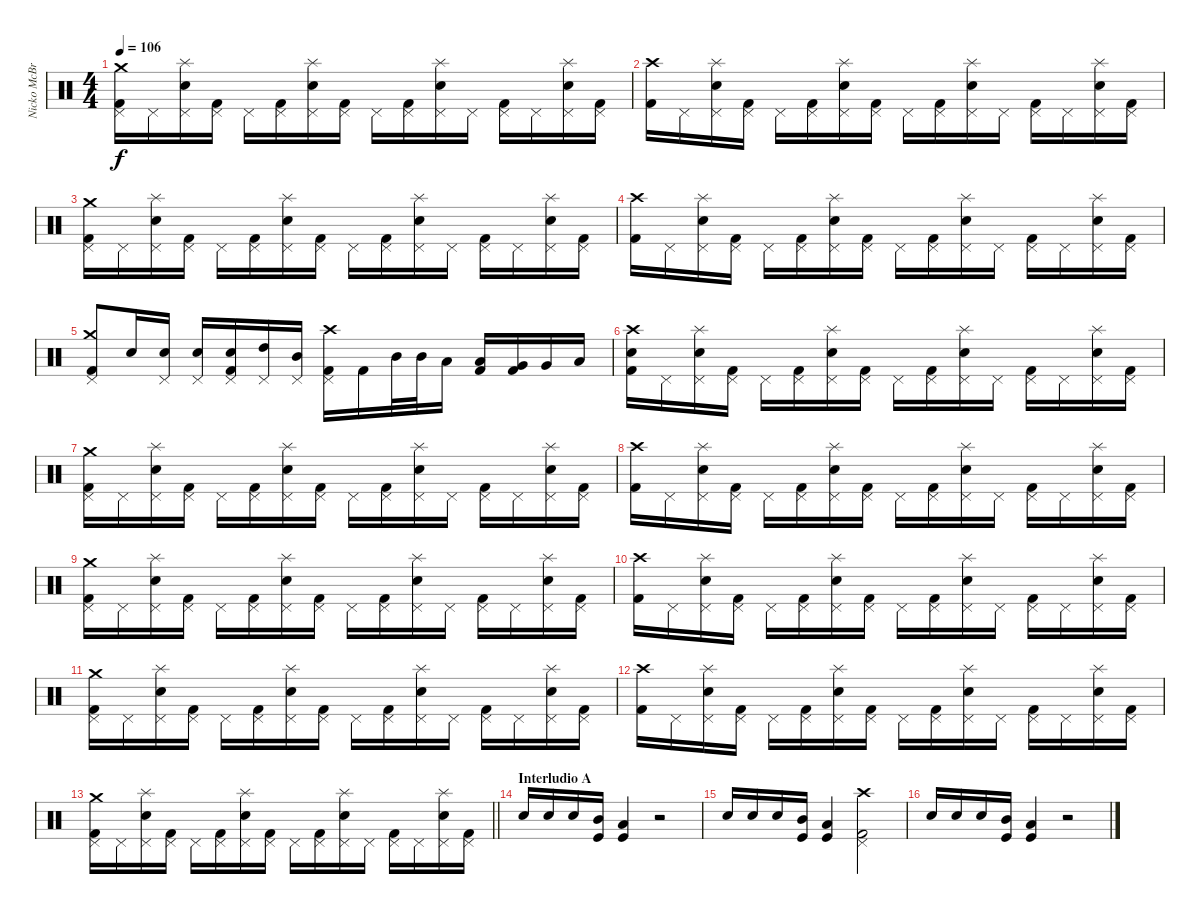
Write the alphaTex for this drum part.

\track ("Nicko McBrain" "Nicko McBr") {instrument percussion}
\staff {score}
\articulation defaults
\ts (4 4)
\tempo 106
\clef neutral
\ks c
("Pedal Hi-Hat (hit)" "Crash medium (hit)" "Kick (hit) 2").16{dy f} "Pedal Hi-Hat (hit)".16 ("Pedal Hi-Hat (hit)" "Snare (hit) 2" "Splash (hit)").16 ("Pedal Hi-Hat (hit)" "Kick (hit) 2").16 "Pedal Hi-Hat (hit)".16 ("Pedal Hi-Hat (hit)" "Kick (hit) 2").16 ("Pedal Hi-Hat (hit)" "Snare (hit) 2" "Splash (hit)").16 ("Pedal Hi-Hat (hit)" "Kick (hit) 2").16 "Pedal Hi-Hat (hit)".16 ("Pedal Hi-Hat (hit)" "Kick (hit) 2").16 ("Pedal Hi-Hat (hit)" "Snare (hit) 2" "Splash (hit)").16 "Pedal Hi-Hat (hit)".16 ("Pedal Hi-Hat (hit)" "Kick (hit) 2").16 "Pedal Hi-Hat (hit)".16 ("Pedal Hi-Hat (hit)" "Snare (hit) 2" "Splash (hit)").16 ("Pedal Hi-Hat (hit)" "Kick (hit) 2").16 |
("Crash high (hit)" "Kick (hit) 2").16 "Pedal Hi-Hat (hit)".16 ("Pedal Hi-Hat (hit)" "Snare (hit) 2" "Splash (hit)").16 ("Pedal Hi-Hat (hit)" "Kick (hit) 2").16 "Pedal Hi-Hat (hit)".16 ("Pedal Hi-Hat (hit)" "Kick (hit) 2").16 ("Pedal Hi-Hat (hit)" "Snare (hit) 2" "Splash (hit)").16 ("Pedal Hi-Hat (hit)" "Kick (hit) 2").16 "Pedal Hi-Hat (hit)".16 ("Pedal Hi-Hat (hit)" "Kick (hit) 2").16 ("Pedal Hi-Hat (hit)" "Snare (hit) 2" "Splash (hit)").16 "Pedal Hi-Hat (hit)".16 ("Pedal Hi-Hat (hit)" "Kick (hit) 2").16 "Pedal Hi-Hat (hit)".16 ("Pedal Hi-Hat (hit)" "Snare (hit) 2" "Splash (hit)").16 ("Pedal Hi-Hat (hit)" "Kick (hit) 2").16 |
("Pedal Hi-Hat (hit)" "Crash medium (hit)" "Kick (hit) 2").16 "Pedal Hi-Hat (hit)".16 ("Pedal Hi-Hat (hit)" "Snare (hit) 2" "Splash (hit)").16 ("Pedal Hi-Hat (hit)" "Kick (hit) 2").16 "Pedal Hi-Hat (hit)".16 ("Pedal Hi-Hat (hit)" "Kick (hit) 2").16 ("Pedal Hi-Hat (hit)" "Snare (hit) 2" "Splash (hit)").16 ("Pedal Hi-Hat (hit)" "Kick (hit) 2").16 "Pedal Hi-Hat (hit)".16 ("Pedal Hi-Hat (hit)" "Kick (hit) 2").16 ("Pedal Hi-Hat (hit)" "Snare (hit) 2" "Splash (hit)").16 "Pedal Hi-Hat (hit)".16 ("Pedal Hi-Hat (hit)" "Kick (hit) 2").16 "Pedal Hi-Hat (hit)".16 ("Pedal Hi-Hat (hit)" "Snare (hit) 2" "Splash (hit)").16 ("Pedal Hi-Hat (hit)" "Kick (hit) 2").16 |
("Crash high (hit)" "Kick (hit) 2").16 "Pedal Hi-Hat (hit)".16 ("Pedal Hi-Hat (hit)" "Snare (hit) 2" "Splash (hit)").16 ("Pedal Hi-Hat (hit)" "Kick (hit) 2").16 "Pedal Hi-Hat (hit)".16 ("Pedal Hi-Hat (hit)" "Kick (hit) 2").16 ("Pedal Hi-Hat (hit)" "Snare (hit) 2" "Splash (hit)").16 ("Pedal Hi-Hat (hit)" "Kick (hit) 2").16 "Pedal Hi-Hat (hit)".16 ("Pedal Hi-Hat (hit)" "Kick (hit) 2").16 ("Pedal Hi-Hat (hit)" "Snare (hit) 2" "Splash (hit)").16 "Pedal Hi-Hat (hit)".16 ("Pedal Hi-Hat (hit)" "Kick (hit) 2").16 "Pedal Hi-Hat (hit)".16 ("Pedal Hi-Hat (hit)" "Snare (hit) 2" "Splash (hit)").16 ("Pedal Hi-Hat (hit)" "Kick (hit) 2").16 |
("Pedal Hi-Hat (hit)" "Crash medium (hit)" "Kick (hit) 2").8 "Snare (hit) 2".16 ("Pedal Hi-Hat (hit)" "Snare (hit) 2").16 ("Pedal Hi-Hat (hit)" "Snare (hit) 2").16 ("Pedal Hi-Hat (hit)" "Snare (hit) 2" "Kick (hit) 2").16 ("Pedal Hi-Hat (hit)" "High Tom (hit)").16 ("Pedal Hi-Hat (hit)" "Mid Tom (hit)").16 ("Pedal Hi-Hat (hit)" "Crash high (hit)" "Kick (hit) 2").16 "Kick (hit) 2".16 "Mid Tom (hit)".32 "Mid Tom (hit)".32 "Low Tom (hit)".16 ("Low Tom (hit)" "Kick (hit) 2").16 ("Very Low Tom (hit)" "Kick (hit) 2").16 "Very Low Tom (hit)".16 "Low Floor Tom (hit)".16 |
("Snare (hit) 2" "Crash high (hit)" "Kick (hit) 2").16 "Pedal Hi-Hat (hit)".16 ("Pedal Hi-Hat (hit)" "Snare (hit) 2" "Splash (hit)").16 ("Pedal Hi-Hat (hit)" "Kick (hit) 2").16 "Pedal Hi-Hat (hit)".16 ("Pedal Hi-Hat (hit)" "Kick (hit) 2").16 ("Pedal Hi-Hat (hit)" "Snare (hit) 2" "Splash (hit)").16 ("Pedal Hi-Hat (hit)" "Kick (hit) 2").16 "Pedal Hi-Hat (hit)".16 ("Pedal Hi-Hat (hit)" "Kick (hit) 2").16 ("Pedal Hi-Hat (hit)" "Snare (hit) 2" "Splash (hit)").16 "Pedal Hi-Hat (hit)".16 ("Pedal Hi-Hat (hit)" "Kick (hit) 2").16 "Pedal Hi-Hat (hit)".16 ("Pedal Hi-Hat (hit)" "Snare (hit) 2" "Splash (hit)").16 ("Pedal Hi-Hat (hit)" "Kick (hit) 2").16 |
("Pedal Hi-Hat (hit)" "Crash medium (hit)" "Kick (hit) 2").16 "Pedal Hi-Hat (hit)".16 ("Pedal Hi-Hat (hit)" "Snare (hit) 2" "Splash (hit)").16 ("Pedal Hi-Hat (hit)" "Kick (hit) 2").16 "Pedal Hi-Hat (hit)".16 ("Pedal Hi-Hat (hit)" "Kick (hit) 2").16 ("Pedal Hi-Hat (hit)" "Snare (hit) 2" "Splash (hit)").16 ("Pedal Hi-Hat (hit)" "Kick (hit) 2").16 "Pedal Hi-Hat (hit)".16 ("Pedal Hi-Hat (hit)" "Kick (hit) 2").16 ("Pedal Hi-Hat (hit)" "Snare (hit) 2" "Splash (hit)").16 "Pedal Hi-Hat (hit)".16 ("Pedal Hi-Hat (hit)" "Kick (hit) 2").16 "Pedal Hi-Hat (hit)".16 ("Pedal Hi-Hat (hit)" "Snare (hit) 2" "Splash (hit)").16 ("Pedal Hi-Hat (hit)" "Kick (hit) 2").16 |
("Crash high (hit)" "Kick (hit) 2").16 "Pedal Hi-Hat (hit)".16 ("Pedal Hi-Hat (hit)" "Snare (hit) 2" "Splash (hit)").16 ("Pedal Hi-Hat (hit)" "Kick (hit) 2").16 "Pedal Hi-Hat (hit)".16 ("Pedal Hi-Hat (hit)" "Kick (hit) 2").16 ("Pedal Hi-Hat (hit)" "Snare (hit) 2" "Splash (hit)").16 ("Pedal Hi-Hat (hit)" "Kick (hit) 2").16 "Pedal Hi-Hat (hit)".16 ("Pedal Hi-Hat (hit)" "Kick (hit) 2").16 ("Pedal Hi-Hat (hit)" "Snare (hit) 2" "Splash (hit)").16 "Pedal Hi-Hat (hit)".16 ("Pedal Hi-Hat (hit)" "Kick (hit) 2").16 "Pedal Hi-Hat (hit)".16 ("Pedal Hi-Hat (hit)" "Snare (hit) 2" "Splash (hit)").16 ("Pedal Hi-Hat (hit)" "Kick (hit) 2").16 |
("Pedal Hi-Hat (hit)" "Crash medium (hit)" "Kick (hit) 2").16 "Pedal Hi-Hat (hit)".16 ("Pedal Hi-Hat (hit)" "Snare (hit) 2" "Splash (hit)").16 ("Pedal Hi-Hat (hit)" "Kick (hit) 2").16 "Pedal Hi-Hat (hit)".16 ("Pedal Hi-Hat (hit)" "Kick (hit) 2").16 ("Pedal Hi-Hat (hit)" "Snare (hit) 2" "Splash (hit)").16 ("Pedal Hi-Hat (hit)" "Kick (hit) 2").16 "Pedal Hi-Hat (hit)".16 ("Pedal Hi-Hat (hit)" "Kick (hit) 2").16 ("Pedal Hi-Hat (hit)" "Snare (hit) 2" "Splash (hit)").16 "Pedal Hi-Hat (hit)".16 ("Pedal Hi-Hat (hit)" "Kick (hit) 2").16 "Pedal Hi-Hat (hit)".16 ("Pedal Hi-Hat (hit)" "Snare (hit) 2" "Splash (hit)").16 ("Pedal Hi-Hat (hit)" "Kick (hit) 2").16 |
("Crash high (hit)" "Kick (hit) 2").16 "Pedal Hi-Hat (hit)".16 ("Pedal Hi-Hat (hit)" "Snare (hit) 2" "Splash (hit)").16 ("Pedal Hi-Hat (hit)" "Kick (hit) 2").16 "Pedal Hi-Hat (hit)".16 ("Pedal Hi-Hat (hit)" "Kick (hit) 2").16 ("Pedal Hi-Hat (hit)" "Snare (hit) 2" "Splash (hit)").16 ("Pedal Hi-Hat (hit)" "Kick (hit) 2").16 "Pedal Hi-Hat (hit)".16 ("Pedal Hi-Hat (hit)" "Kick (hit) 2").16 ("Pedal Hi-Hat (hit)" "Snare (hit) 2" "Splash (hit)").16 "Pedal Hi-Hat (hit)".16 ("Pedal Hi-Hat (hit)" "Kick (hit) 2").16 "Pedal Hi-Hat (hit)".16 ("Pedal Hi-Hat (hit)" "Snare (hit) 2" "Splash (hit)").16 ("Pedal Hi-Hat (hit)" "Kick (hit) 2").16 |
("Pedal Hi-Hat (hit)" "Crash medium (hit)" "Kick (hit) 2").16 "Pedal Hi-Hat (hit)".16 ("Pedal Hi-Hat (hit)" "Snare (hit) 2" "Splash (hit)").16 ("Pedal Hi-Hat (hit)" "Kick (hit) 2").16 "Pedal Hi-Hat (hit)".16 ("Pedal Hi-Hat (hit)" "Kick (hit) 2").16 ("Pedal Hi-Hat (hit)" "Snare (hit) 2" "Splash (hit)").16 ("Pedal Hi-Hat (hit)" "Kick (hit) 2").16 "Pedal Hi-Hat (hit)".16 ("Pedal Hi-Hat (hit)" "Kick (hit) 2").16 ("Pedal Hi-Hat (hit)" "Snare (hit) 2" "Splash (hit)").16 "Pedal Hi-Hat (hit)".16 ("Pedal Hi-Hat (hit)" "Kick (hit) 2").16 "Pedal Hi-Hat (hit)".16 ("Pedal Hi-Hat (hit)" "Snare (hit) 2" "Splash (hit)").16 ("Pedal Hi-Hat (hit)" "Kick (hit) 2").16 |
("Crash high (hit)" "Kick (hit) 2").16 "Pedal Hi-Hat (hit)".16 ("Pedal Hi-Hat (hit)" "Snare (hit) 2" "Splash (hit)").16 ("Pedal Hi-Hat (hit)" "Kick (hit) 2").16 "Pedal Hi-Hat (hit)".16 ("Pedal Hi-Hat (hit)" "Kick (hit) 2").16 ("Pedal Hi-Hat (hit)" "Snare (hit) 2" "Splash (hit)").16 ("Pedal Hi-Hat (hit)" "Kick (hit) 2").16 "Pedal Hi-Hat (hit)".16 ("Pedal Hi-Hat (hit)" "Kick (hit) 2").16 ("Pedal Hi-Hat (hit)" "Snare (hit) 2" "Splash (hit)").16 "Pedal Hi-Hat (hit)".16 ("Pedal Hi-Hat (hit)" "Kick (hit) 2").16 "Pedal Hi-Hat (hit)".16 ("Pedal Hi-Hat (hit)" "Snare (hit) 2" "Splash (hit)").16 ("Pedal Hi-Hat (hit)" "Kick (hit) 2").16 |
\barLineRight lightlight
("Pedal Hi-Hat (hit)" "Crash medium (hit)" "Kick (hit) 2").16 "Pedal Hi-Hat (hit)".16 ("Pedal Hi-Hat (hit)" "Snare (hit) 2" "Splash (hit)").16 ("Pedal Hi-Hat (hit)" "Kick (hit) 2").16 "Pedal Hi-Hat (hit)".16 ("Pedal Hi-Hat (hit)" "Kick (hit) 2").16 ("Pedal Hi-Hat (hit)" "Snare (hit) 2" "Splash (hit)").16 ("Pedal Hi-Hat (hit)" "Kick (hit) 2").16 "Pedal Hi-Hat (hit)".16 ("Pedal Hi-Hat (hit)" "Kick (hit) 2").16 ("Pedal Hi-Hat (hit)" "Snare (hit) 2" "Splash (hit)").16 "Pedal Hi-Hat (hit)".16 ("Pedal Hi-Hat (hit)" "Kick (hit) 2").16 "Pedal Hi-Hat (hit)".16 ("Pedal Hi-Hat (hit)" "Snare (hit) 2" "Splash (hit)").16 ("Pedal Hi-Hat (hit)" "Kick (hit) 2").16 |
\section ("" "Interludio A")
"Snare (hit) 2".16 "Snare (hit) 2".16 "Snare (hit) 2".16 ("Mid Tom (hit)" "Kick (hit)").16 ("Low Tom (hit)" "Kick (hit)").4 r.2 |
"Snare (hit) 2".16 "Snare (hit) 2".16 "Snare (hit) 2".16 ("Mid Tom (hit)" "Kick (hit)").16 ("Low Tom (hit)" "Kick (hit)").4 ("Kick (hit) 2" "Pedal Hi-Hat (hit)" "Crash high (hit)").2 |
"Snare (hit) 2".16 "Snare (hit) 2".16 "Snare (hit) 2".16 ("Mid Tom (hit)" "Kick (hit)").16 ("Low Tom (hit)" "Kick (hit)").4 r.2
